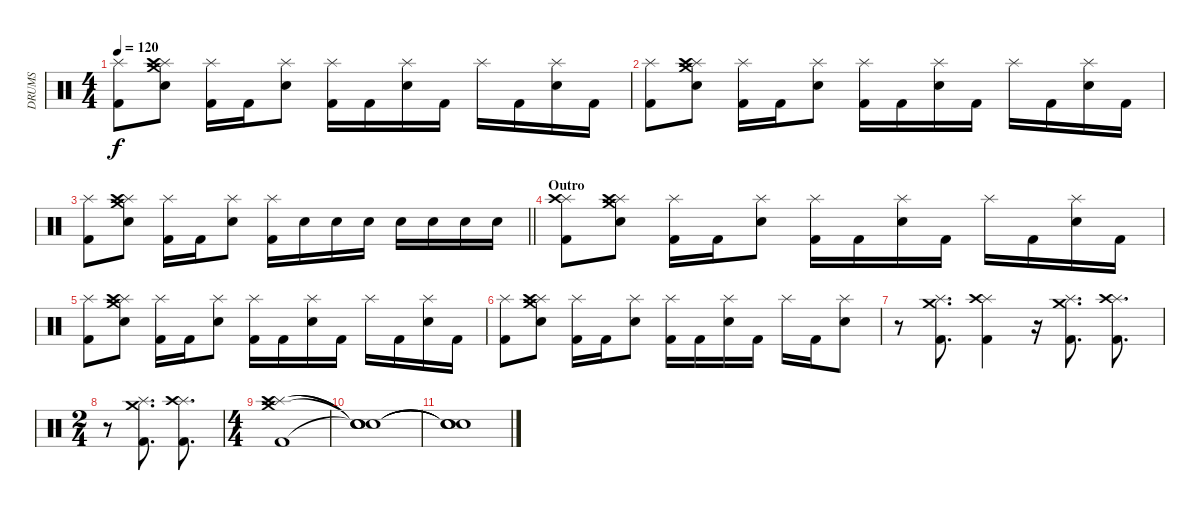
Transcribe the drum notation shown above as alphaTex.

\track ("DRUMS" "DRUMS") {instrument percussion}
\staff {score}
\articulation defaults
\ts (4 4)
\tempo 120
\clef neutral
\ks c
("Splash (hit)" "Kick (hit) 2").8{dy f} ("Crash medium (hit)" "Splash (hit)" "Crash high (hit)" "Electric Snare (hit)").8 ("Splash (hit)" "Kick (hit) 2").16 "Kick (hit) 2".16 ("Splash (hit)" "Electric Snare (hit)").8 ("Splash (hit)" "Kick (hit) 2").16 "Kick (hit) 2".16 ("Splash (hit)" "Electric Snare (hit)").16 "Kick (hit) 2".16 "Splash (hit)".16 "Kick (hit) 2".16 ("Splash (hit)" "Electric Snare (hit)").16 "Kick (hit) 2".16 |
("Splash (hit)" "Kick (hit) 2").8 ("Crash medium (hit)" "Splash (hit)" "Crash high (hit)" "Electric Snare (hit)").8 ("Splash (hit)" "Kick (hit) 2").16 "Kick (hit) 2".16 ("Splash (hit)" "Electric Snare (hit)").8 ("Splash (hit)" "Kick (hit) 2").16 "Kick (hit) 2".16 ("Splash (hit)" "Electric Snare (hit)").16 "Kick (hit) 2".16 "Splash (hit)".16 "Kick (hit) 2".16 ("Splash (hit)" "Electric Snare (hit)").16 "Kick (hit) 2".16 |
\barLineRight lightlight
("Splash (hit)" "Kick (hit) 2").8 ("Crash medium (hit)" "Splash (hit)" "Crash high (hit)" "Electric Snare (hit)").8 ("Splash (hit)" "Kick (hit) 2").16 "Kick (hit) 2".16 ("Splash (hit)" "Electric Snare (hit)").8 ("Splash (hit)" "Kick (hit) 2").16 "Electric Snare (hit)".16 "Electric Snare (hit)".16 "Electric Snare (hit)".16 "Electric Snare (hit)".16 "Electric Snare (hit)".16 "Electric Snare (hit)".16 "Electric Snare (hit)".16 |
\section ("" "Outro")
("Splash (hit)" "Crash high (hit)" "Kick (hit) 2").8 ("Crash medium (hit)" "Splash (hit)" "Crash high (hit)" "Electric Snare (hit)").8 ("Splash (hit)" "Kick (hit) 2").16 "Kick (hit) 2".16 ("Splash (hit)" "Electric Snare (hit)").8 ("Splash (hit)" "Kick (hit) 2").16 "Kick (hit) 2".16 ("Splash (hit)" "Electric Snare (hit)").16 "Kick (hit) 2".16 "Splash (hit)".16 "Kick (hit) 2".16 ("Splash (hit)" "Electric Snare (hit)").16 "Kick (hit) 2".16 |
("Splash (hit)" "Kick (hit) 2").8 ("Crash medium (hit)" "Splash (hit)" "Crash high (hit)" "Electric Snare (hit)").8 ("Splash (hit)" "Kick (hit) 2").16 "Kick (hit) 2".16 ("Splash (hit)" "Electric Snare (hit)").8 ("Splash (hit)" "Kick (hit) 2").16 "Kick (hit) 2".16 ("Splash (hit)" "Electric Snare (hit)").16 "Kick (hit) 2".16 "Splash (hit)".16 "Kick (hit) 2".16 ("Splash (hit)" "Electric Snare (hit)").16 "Kick (hit) 2".16 |
("Splash (hit)" "Kick (hit) 2").8 ("Crash medium (hit)" "Splash (hit)" "Crash high (hit)" "Electric Snare (hit)").8 ("Splash (hit)" "Kick (hit) 2").16 "Kick (hit) 2".16 ("Splash (hit)" "Electric Snare (hit)").8 ("Splash (hit)" "Kick (hit) 2").16 "Kick (hit) 2".16 ("Splash (hit)" "Electric Snare (hit)").16 "Kick (hit) 2".16 "Splash (hit)".16 "Kick (hit) 2".16 ("Splash (hit)" "Electric Snare (hit)").8 |
r.8 ("Crash medium (hit)" "Splash (hit)" "Kick (hit) 2").8{d} ("Splash (hit)" "Crash high (hit)" "Kick (hit) 2").4 r.16 ("Crash medium (hit)" "Splash (hit)" "Kick (hit) 2").8{d} ("Splash (hit)" "Crash high (hit)" "Kick (hit) 2").8{d} |
\ts (2 4)
r.8 ("Crash medium (hit)" "Splash (hit)" "Kick (hit) 2").8{d} ("Splash (hit)" "Crash high (hit)" "Kick (hit) 2").8{d} |
\ts (4 4)
("Crash medium (hit)" "Splash (hit)" "Crash high (hit)" "Kick (hit) 2").1 |
("Snare (hit)"{t} "Snare (hit)"{t} "Snare (hit)"{t} "Snare (hit)"{t}).1 |
("Snare (hit)"{t} "Snare (hit)"{t} "Snare (hit)"{t} "Snare (hit)"{t}).1
